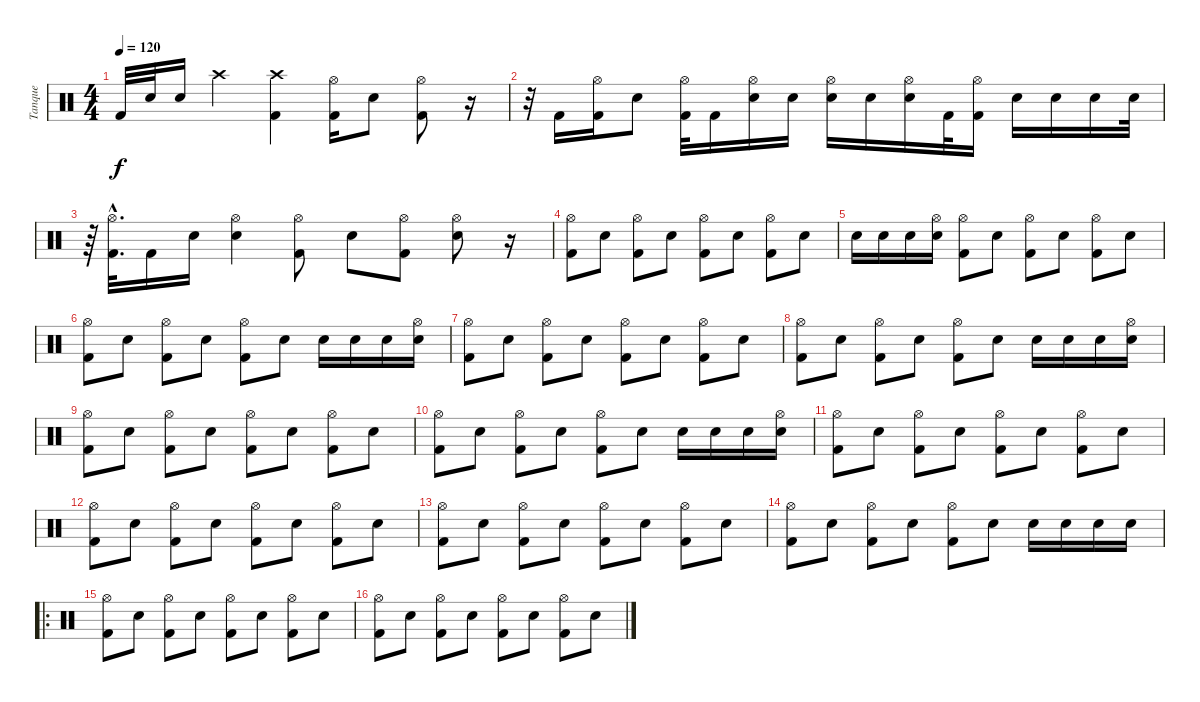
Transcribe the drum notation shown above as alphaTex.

\track ("Tanque" "Tanque") {instrument percussion}
\staff {score}
\articulation defaults
\ts (4 4)
\tempo 120
\clef neutral
\ks c "Kick (hit) 2".32{dy f} "Electric Snare (hit)".32 "Electric Snare (hit)".16 "Crash high (hit)".4
("Kick (hit) 2" "Crash high (hit)").4 ("Kick (hit) 2" "Hi-Hat (open)").16 "Electric Snare (hit)".8 ("Kick (hit) 2" "Hi-Hat (open)").8 r.16 |
r.32 "Kick (hit) 2".16 ("Kick (hit) 2" "Hi-Hat (open)").16 "Electric Snare (hit)".8 ("Kick (hit) 2" "Hi-Hat (open)").32 "Kick (hit) 2".16 ("Electric Snare (hit)" "Hi-Hat (open)").16 "Electric Snare (hit)".16 ("Electric Snare (hit)" "Hi-Hat (open)").16 "Electric Snare (hit)".16 ("Electric Snare (hit)" "Hi-Hat (open)").16 "Kick (hit) 2".32 ("Kick (hit) 2" "Hi-Hat (open)").16 "Electric Snare (hit)".16 "Electric Snare (hit)".16 "Electric Snare (hit)".16 "Electric Snare (hit)".32 |
r.64 ("Kick (hit) 2"{hac} "Hi-Hat (open)"{hac}).32{d} "Kick (hit) 2".16 "Electric Snare (hit)".16 ("Electric Snare (hit)" "Hi-Hat (open)").4 ("Kick (hit) 2" "Hi-Hat (open)").8 "Electric Snare (hit)".8 ("Kick (hit) 2" "Hi-Hat (open)").8 ("Electric Snare (hit)" "Hi-Hat (open)").8 r.16 |
("Kick (hit) 2" "Hi-Hat (open)").8 "Electric Snare (hit)".8 ("Kick (hit) 2" "Hi-Hat (open)").8 "Electric Snare (hit)".8 ("Kick (hit) 2" "Hi-Hat (open)").8 "Electric Snare (hit)".8 ("Kick (hit) 2" "Hi-Hat (open)").8 "Electric Snare (hit)".8 |
"Electric Snare (hit)".16 "Electric Snare (hit)".16 "Electric Snare (hit)".16 ("Electric Snare (hit)" "Hi-Hat (open)").16 ("Kick (hit) 2" "Hi-Hat (open)").8 "Electric Snare (hit)".8 ("Kick (hit) 2" "Hi-Hat (open)").8 "Electric Snare (hit)".8 ("Kick (hit) 2" "Hi-Hat (open)").8 "Electric Snare (hit)".8 |
("Kick (hit) 2" "Hi-Hat (open)").8 "Electric Snare (hit)".8 ("Kick (hit) 2" "Hi-Hat (open)").8 "Electric Snare (hit)".8 ("Kick (hit) 2" "Hi-Hat (open)").8 "Electric Snare (hit)".8 "Electric Snare (hit)".16 "Electric Snare (hit)".16 "Electric Snare (hit)".16 ("Electric Snare (hit)" "Hi-Hat (open)").16 |
("Kick (hit) 2" "Hi-Hat (open)").8 "Electric Snare (hit)".8 ("Kick (hit) 2" "Hi-Hat (open)").8 "Electric Snare (hit)".8 ("Kick (hit) 2" "Hi-Hat (open)").8 "Electric Snare (hit)".8 ("Kick (hit) 2" "Hi-Hat (open)").8 "Electric Snare (hit)".8 |
("Kick (hit) 2" "Hi-Hat (open)").8 "Electric Snare (hit)".8 ("Kick (hit) 2" "Hi-Hat (open)").8 "Electric Snare (hit)".8 ("Kick (hit) 2" "Hi-Hat (open)").8 "Electric Snare (hit)".8 "Electric Snare (hit)".16 "Electric Snare (hit)".16 "Electric Snare (hit)".16 ("Electric Snare (hit)" "Hi-Hat (open)").16 |
("Kick (hit) 2" "Hi-Hat (open)").8 "Electric Snare (hit)".8 ("Kick (hit) 2" "Hi-Hat (open)").8 "Electric Snare (hit)".8 ("Kick (hit) 2" "Hi-Hat (open)").8 "Electric Snare (hit)".8 ("Kick (hit) 2" "Hi-Hat (open)").8 "Electric Snare (hit)".8 |
("Kick (hit) 2" "Hi-Hat (open)").8 "Electric Snare (hit)".8 ("Kick (hit) 2" "Hi-Hat (open)").8 "Electric Snare (hit)".8 ("Kick (hit) 2" "Hi-Hat (open)").8 "Electric Snare (hit)".8 "Electric Snare (hit)".16 "Electric Snare (hit)".16 "Electric Snare (hit)".16 ("Electric Snare (hit)" "Hi-Hat (open)").16 |
("Kick (hit) 2" "Hi-Hat (open)").8 "Electric Snare (hit)".8 ("Kick (hit) 2" "Hi-Hat (open)").8 "Electric Snare (hit)".8 ("Kick (hit) 2" "Hi-Hat (open)").8 "Electric Snare (hit)".8 ("Kick (hit) 2" "Hi-Hat (open)").8 "Electric Snare (hit)".8 |
("Kick (hit) 2" "Hi-Hat (open)").8 "Electric Snare (hit)".8 ("Kick (hit) 2" "Hi-Hat (open)").8 "Electric Snare (hit)".8 ("Kick (hit) 2" "Hi-Hat (open)").8 "Electric Snare (hit)".8 ("Kick (hit) 2" "Hi-Hat (open)").8 "Electric Snare (hit)".8 |
("Kick (hit) 2" "Hi-Hat (open)").8 "Electric Snare (hit)".8 ("Kick (hit) 2" "Hi-Hat (open)").8 "Electric Snare (hit)".8 ("Kick (hit) 2" "Hi-Hat (open)").8 "Electric Snare (hit)".8 ("Kick (hit) 2" "Hi-Hat (open)").8 "Electric Snare (hit)".8 |
("Kick (hit) 2" "Hi-Hat (open)").8 "Electric Snare (hit)".8 ("Kick (hit) 2" "Hi-Hat (open)").8 "Electric Snare (hit)".8 ("Kick (hit) 2" "Hi-Hat (open)").8 "Electric Snare (hit)".8 "Electric Snare (hit)".16 "Electric Snare (hit)".16 "Electric Snare (hit)".16 "Electric Snare (hit)".16 |
\ro
("Kick (hit) 2" "Hi-Hat (open)").8 "Electric Snare (hit)".8 ("Kick (hit) 2" "Hi-Hat (open)").8 "Electric Snare (hit)".8 ("Kick (hit) 2" "Hi-Hat (open)").8 "Electric Snare (hit)".8 ("Kick (hit) 2" "Hi-Hat (open)").8 "Electric Snare (hit)".8 |
("Kick (hit) 2" "Hi-Hat (open)").8 "Electric Snare (hit)".8 ("Kick (hit) 2" "Hi-Hat (open)").8 "Electric Snare (hit)".8 ("Kick (hit) 2" "Hi-Hat (open)").8 "Electric Snare (hit)".8 ("Kick (hit) 2" "Hi-Hat (open)").8 "Electric Snare (hit)".8
